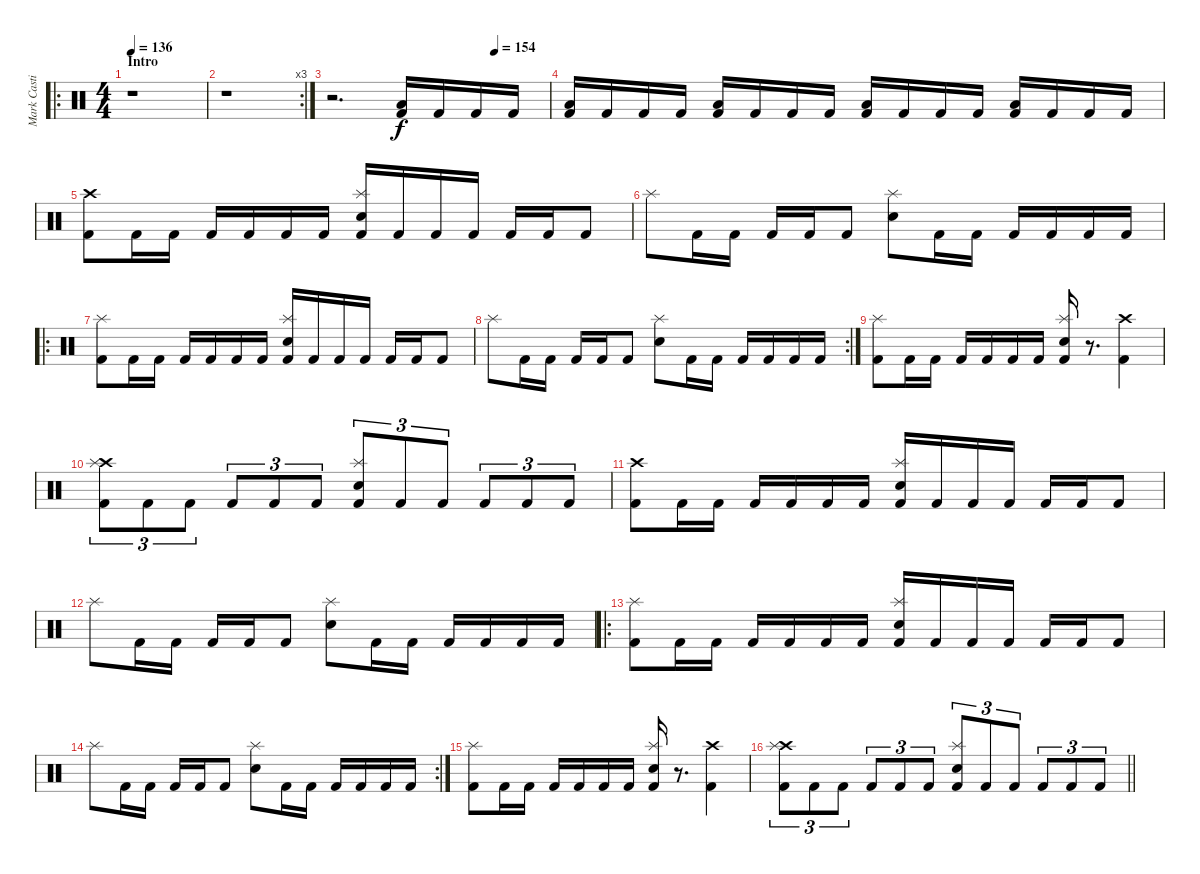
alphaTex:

\track ("Mark Castillo" "Mark Casti") {instrument percussion}
\staff {score}
\articulation defaults
\ro
\ts (4 4)
\section ("" "Intro")
\tempo 136
\clef neutral
\ks c
r.1{dy f} |
\rc 3
r.1 |
\tempo (154 0.75)
r.2{d} ("Low Floor Tom (hit)" "Kick (hit) 2").16 "Kick (hit) 2".16 "Kick (hit) 2".16 "Kick (hit) 2".16 |
("Low Floor Tom (hit)" "Kick (hit) 2").16 "Kick (hit) 2".16 "Kick (hit) 2".16 "Kick (hit) 2".16 ("Low Floor Tom (hit)" "Kick (hit) 2").16 "Kick (hit) 2".16 "Kick (hit) 2".16 "Kick (hit) 2".16 ("Low Floor Tom (hit)" "Kick (hit) 2").16 "Kick (hit) 2".16 "Kick (hit) 2".16 "Kick (hit) 2".16 ("Low Floor Tom (hit)" "Kick (hit) 2").16 "Kick (hit) 2".16 "Kick (hit) 2".16 "Kick (hit) 2".16 |
("Crash high (hit)" "Kick (hit) 2").8 "Kick (hit) 2".16 "Kick (hit) 2".16 "Kick (hit) 2".16 "Kick (hit) 2".16 "Kick (hit) 2".16 "Kick (hit) 2".16 ("Splash (hit)" "Electric Snare (hit)" "Kick (hit) 2").16 "Kick (hit) 2".16 "Kick (hit) 2".16 "Kick (hit) 2".16 "Kick (hit) 2".16 "Kick (hit) 2".16 "Kick (hit) 2".8 |
"Splash (hit)".8 "Kick (hit) 2".16 "Kick (hit) 2".16 "Kick (hit) 2".16 "Kick (hit) 2".16 "Kick (hit) 2".8 ("Splash (hit)" "Electric Snare (hit)").8 "Kick (hit) 2".16 "Kick (hit) 2".16 "Kick (hit) 2".16 "Kick (hit) 2".16 "Kick (hit) 2".16 "Kick (hit) 2".16 |
\ro
("Splash (hit)" "Kick (hit) 2").8 "Kick (hit) 2".16 "Kick (hit) 2".16 "Kick (hit) 2".16 "Kick (hit) 2".16 "Kick (hit) 2".16 "Kick (hit) 2".16 ("Splash (hit)" "Electric Snare (hit)" "Kick (hit) 2").16 "Kick (hit) 2".16 "Kick (hit) 2".16 "Kick (hit) 2".16 "Kick (hit) 2".16 "Kick (hit) 2".16 "Kick (hit) 2".8 |
\rc 2 "Splash (hit)".8 "Kick (hit) 2".16 "Kick (hit) 2".16 "Kick (hit) 2".16 "Kick (hit) 2".16 "Kick (hit) 2".8
("Splash (hit)" "Electric Snare (hit)").8 "Kick (hit) 2".16 "Kick (hit) 2".16 "Kick (hit) 2".16 "Kick (hit) 2".16 "Kick (hit) 2".16 "Kick (hit) 2".16 |
("Splash (hit)" "Kick (hit) 2").8 "Kick (hit) 2".16 "Kick (hit) 2".16 "Kick (hit) 2".16 "Kick (hit) 2".16 "Kick (hit) 2".16 "Kick (hit) 2".16 ("Splash (hit)" "Electric Snare (hit)" "Kick (hit) 2").16 r.8{d} ("Crash high (hit)" "Kick (hit) 2").4 |
("Crash high (hit)" "Splash (hit)" "Kick (hit) 2").8{tu (3 2)} "Kick (hit) 2".8{tu (3 2)} "Kick (hit) 2".8{tu (3 2)} "Kick (hit) 2".8{tu (3 2)} "Kick (hit) 2".8{tu (3 2)} "Kick (hit) 2".8{tu (3 2)} ("Splash (hit)" "Electric Snare (hit)" "Kick (hit) 2").8{tu (3 2)} "Kick (hit) 2".8{tu (3 2)} "Kick (hit) 2".8{tu (3 2)} "Kick (hit) 2".8{tu (3 2)} "Kick (hit) 2".8{tu (3 2)} "Kick (hit) 2".8{tu (3 2)} |
("Crash high (hit)" "Kick (hit) 2").8 "Kick (hit) 2".16 "Kick (hit) 2".16 "Kick (hit) 2".16 "Kick (hit) 2".16 "Kick (hit) 2".16 "Kick (hit) 2".16 ("Splash (hit)" "Electric Snare (hit)" "Kick (hit) 2").16 "Kick (hit) 2".16 "Kick (hit) 2".16 "Kick (hit) 2".16 "Kick (hit) 2".16 "Kick (hit) 2".16 "Kick (hit) 2".8 |
"Splash (hit)".8 "Kick (hit) 2".16 "Kick (hit) 2".16 "Kick (hit) 2".16 "Kick (hit) 2".16 "Kick (hit) 2".8 ("Splash (hit)" "Electric Snare (hit)").8 "Kick (hit) 2".16 "Kick (hit) 2".16 "Kick (hit) 2".16 "Kick (hit) 2".16 "Kick (hit) 2".16 "Kick (hit) 2".16 |
\ro
("Splash (hit)" "Kick (hit) 2").8 "Kick (hit) 2".16 "Kick (hit) 2".16 "Kick (hit) 2".16 "Kick (hit) 2".16 "Kick (hit) 2".16 "Kick (hit) 2".16 ("Splash (hit)" "Electric Snare (hit)" "Kick (hit) 2").16 "Kick (hit) 2".16 "Kick (hit) 2".16 "Kick (hit) 2".16 "Kick (hit) 2".16 "Kick (hit) 2".16 "Kick (hit) 2".8 |
\rc 2 "Splash (hit)".8 "Kick (hit) 2".16 "Kick (hit) 2".16 "Kick (hit) 2".16 "Kick (hit) 2".16 "Kick (hit) 2".8
("Splash (hit)" "Electric Snare (hit)").8 "Kick (hit) 2".16 "Kick (hit) 2".16 "Kick (hit) 2".16 "Kick (hit) 2".16 "Kick (hit) 2".16 "Kick (hit) 2".16 |
("Splash (hit)" "Kick (hit) 2").8 "Kick (hit) 2".16 "Kick (hit) 2".16 "Kick (hit) 2".16 "Kick (hit) 2".16 "Kick (hit) 2".16 "Kick (hit) 2".16 ("Splash (hit)" "Electric Snare (hit)" "Kick (hit) 2").16 r.8{d} ("Crash high (hit)" "Kick (hit) 2").4 |
\barLineRight lightlight
("Crash high (hit)" "Splash (hit)" "Kick (hit) 2").8{tu (3 2)} "Kick (hit) 2".8{tu (3 2)} "Kick (hit) 2".8{tu (3 2)} "Kick (hit) 2".8{tu (3 2)} "Kick (hit) 2".8{tu (3 2)} "Kick (hit) 2".8{tu (3 2)} ("Splash (hit)" "Electric Snare (hit)" "Kick (hit) 2").8{tu (3 2)} "Kick (hit) 2".8{tu (3 2)} "Kick (hit) 2".8{tu (3 2)} "Kick (hit) 2".8{tu (3 2)} "Kick (hit) 2".8{tu (3 2)} "Kick (hit) 2".8{tu (3 2)}
